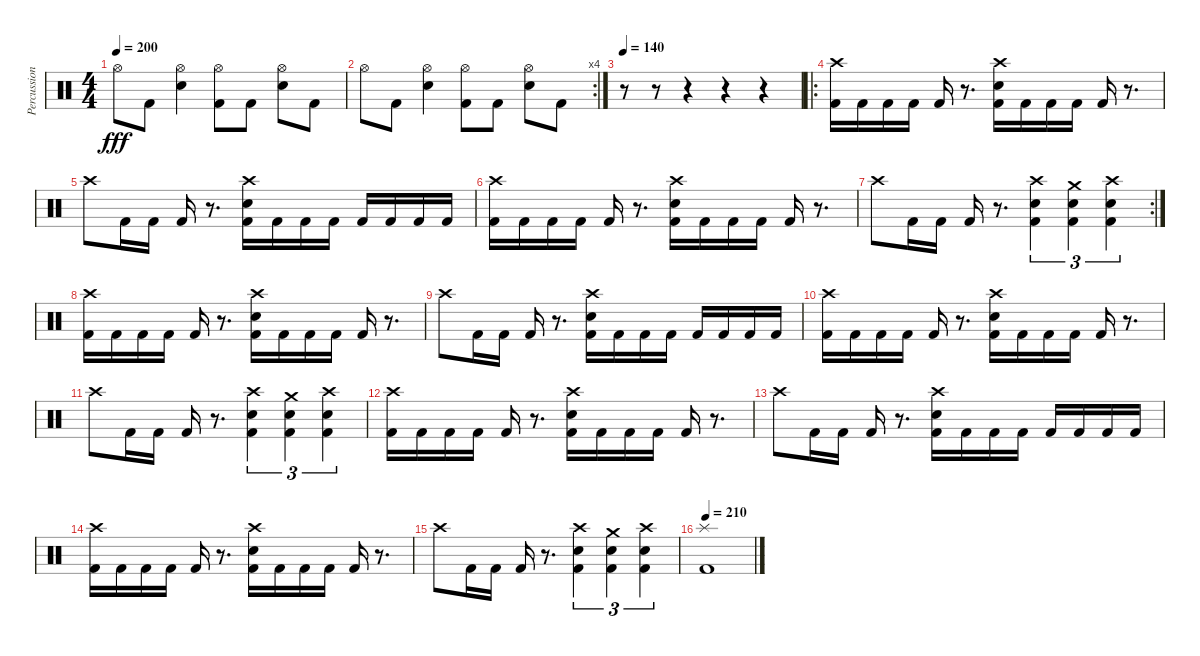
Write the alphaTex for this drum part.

\track ("Percussion" "Percussion") {instrument percussion}
\staff {score}
\articulation defaults
\ts (4 4)
\tempo 200
\clef neutral
\ks c "Hi-Hat (open)".8{dy fff} "Kick (hit) 2".8
("Hi-Hat (open)" "Electric Snare (hit)").4 ("Hi-Hat (open)" "Kick (hit) 2").8 "Kick (hit) 2".8 ("Hi-Hat (open)" "Electric Snare (hit)").8 "Kick (hit) 2".8 |
\rc 4 "Hi-Hat (open)".8 "Kick (hit) 2".8
("Hi-Hat (open)" "Electric Snare (hit)").4 ("Hi-Hat (open)" "Kick (hit) 2").8 "Kick (hit) 2".8 ("Hi-Hat (open)" "Electric Snare (hit)").8 "Kick (hit) 2".8 |
\tempo 140
r.8 r.8 r.4 r.4 r.4 |
\ro
("Crash high (hit)" "Kick (hit) 2").16 "Kick (hit) 2".16 "Kick (hit) 2".16 "Kick (hit) 2".16 "Kick (hit) 2".16 r.8{d} ("Crash high (hit)" "Electric Snare (hit)" "Kick (hit) 2").16 "Kick (hit) 2".16 "Kick (hit) 2".16 "Kick (hit) 2".16 "Kick (hit) 2".16 r.8{d} |
"Crash high (hit)".8 "Kick (hit) 2".16 "Kick (hit) 2".16 "Kick (hit) 2".16 r.8{d} ("Crash high (hit)" "Electric Snare (hit)" "Kick (hit) 2").16 "Kick (hit) 2".16 "Kick (hit) 2".16 "Kick (hit) 2".16 "Kick (hit) 2".16 "Kick (hit) 2".16 "Kick (hit) 2".16 "Kick (hit) 2".16 |
("Crash high (hit)" "Kick (hit) 2").16 "Kick (hit) 2".16 "Kick (hit) 2".16 "Kick (hit) 2".16 "Kick (hit) 2".16 r.8{d} ("Crash high (hit)" "Electric Snare (hit)" "Kick (hit) 2").16 "Kick (hit) 2".16 "Kick (hit) 2".16 "Kick (hit) 2".16 "Kick (hit) 2".16 r.8{d} |
\rc 2 "Crash high (hit)".8 "Kick (hit) 2".16 "Kick (hit) 2".16 "Kick (hit) 2".16
r.8{d} ("Crash high (hit)" "Electric Snare (hit)" "Kick (hit) 2").4{tu (3 2)} ("Crash medium (hit)" "Electric Snare (hit)" "Kick (hit) 2").4{tu (3 2)} ("Crash high (hit)" "Electric Snare (hit)" "Kick (hit) 2").4{tu (3 2)} |
("Crash high (hit)" "Kick (hit) 2").16 "Kick (hit) 2".16 "Kick (hit) 2".16 "Kick (hit) 2".16 "Kick (hit) 2".16 r.8{d} ("Crash high (hit)" "Electric Snare (hit)" "Kick (hit) 2").16 "Kick (hit) 2".16 "Kick (hit) 2".16 "Kick (hit) 2".16 "Kick (hit) 2".16 r.8{d} |
"Crash high (hit)".8 "Kick (hit) 2".16 "Kick (hit) 2".16 "Kick (hit) 2".16 r.8{d} ("Crash high (hit)" "Electric Snare (hit)" "Kick (hit) 2").16 "Kick (hit) 2".16 "Kick (hit) 2".16 "Kick (hit) 2".16 "Kick (hit) 2".16 "Kick (hit) 2".16 "Kick (hit) 2".16 "Kick (hit) 2".16 |
("Crash high (hit)" "Kick (hit) 2").16 "Kick (hit) 2".16 "Kick (hit) 2".16 "Kick (hit) 2".16 "Kick (hit) 2".16 r.8{d} ("Crash high (hit)" "Electric Snare (hit)" "Kick (hit) 2").16 "Kick (hit) 2".16 "Kick (hit) 2".16 "Kick (hit) 2".16 "Kick (hit) 2".16 r.8{d} |
"Crash high (hit)".8 "Kick (hit) 2".16 "Kick (hit) 2".16 "Kick (hit) 2".16 r.8{d} ("Crash high (hit)" "Electric Snare (hit)" "Kick (hit) 2").4{tu (3 2)} ("Crash medium (hit)" "Electric Snare (hit)" "Kick (hit) 2").4{tu (3 2)} ("Crash high (hit)" "Electric Snare (hit)" "Kick (hit) 2").4{tu (3 2)} |
("Crash high (hit)" "Kick (hit) 2").16 "Kick (hit) 2".16 "Kick (hit) 2".16 "Kick (hit) 2".16 "Kick (hit) 2".16 r.8{d} ("Crash high (hit)" "Electric Snare (hit)" "Kick (hit) 2").16 "Kick (hit) 2".16 "Kick (hit) 2".16 "Kick (hit) 2".16 "Kick (hit) 2".16 r.8{d} |
"Crash high (hit)".8 "Kick (hit) 2".16 "Kick (hit) 2".16 "Kick (hit) 2".16 r.8{d} ("Crash high (hit)" "Electric Snare (hit)" "Kick (hit) 2").16 "Kick (hit) 2".16 "Kick (hit) 2".16 "Kick (hit) 2".16 "Kick (hit) 2".16 "Kick (hit) 2".16 "Kick (hit) 2".16 "Kick (hit) 2".16 |
("Crash high (hit)" "Kick (hit) 2").16 "Kick (hit) 2".16 "Kick (hit) 2".16 "Kick (hit) 2".16 "Kick (hit) 2".16 r.8{d} ("Crash high (hit)" "Electric Snare (hit)" "Kick (hit) 2").16 "Kick (hit) 2".16 "Kick (hit) 2".16 "Kick (hit) 2".16 "Kick (hit) 2".16 r.8{d} |
"Crash high (hit)".8 "Kick (hit) 2".16 "Kick (hit) 2".16 "Kick (hit) 2".16 r.8{d} ("Crash high (hit)" "Electric Snare (hit)" "Kick (hit) 2").4{tu (3 2)} ("Crash medium (hit)" "Electric Snare (hit)" "Kick (hit) 2").4{tu (3 2)} ("Crash high (hit)" "Electric Snare (hit)" "Kick (hit) 2").4{tu (3 2)} |
\tempo 210
("Splash (hit)" "Kick (hit) 2").1
